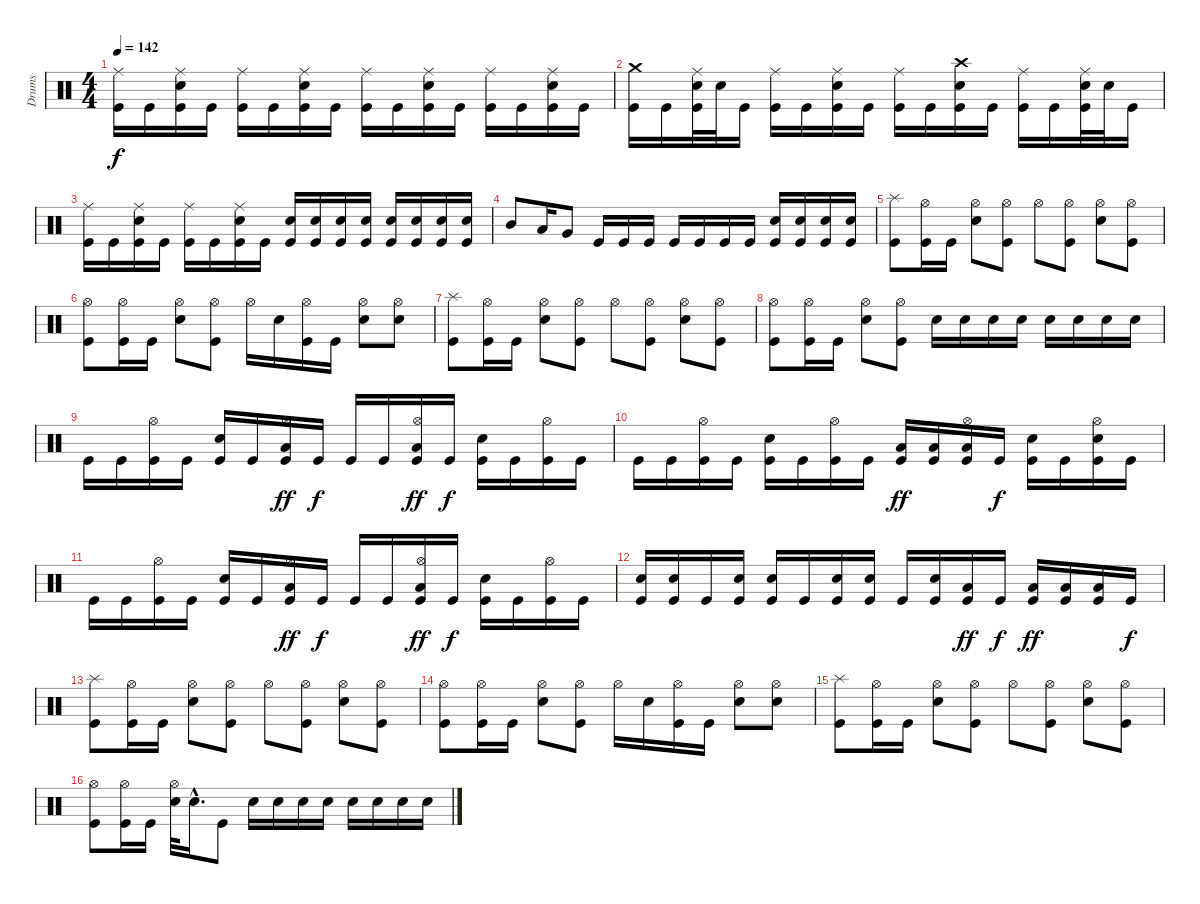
\track ("Drums" "Drums") {instrument percussion}
\staff {score}
\articulation defaults
\ts (4 4)
\tempo 142
\clef neutral
\ks c
("Ride (middle)" "Kick (hit)").16{dy f} "Kick (hit)".16 ("Ride (middle)" "Snare (hit) 2" "Kick (hit)").16 "Kick (hit)".16 ("Ride (middle)" "Kick (hit)").16 "Kick (hit)".16 ("Ride (middle)" "Snare (hit) 2" "Kick (hit)").16 "Kick (hit)".16 ("Ride (middle)" "Kick (hit)").16 "Kick (hit)".16 ("Ride (middle)" "Snare (hit) 2" "Kick (hit)").16 "Kick (hit)".16 ("Ride (middle)" "Kick (hit)").16 "Kick (hit)".16 ("Ride (middle)" "Snare (hit) 2" "Kick (hit)").16 "Kick (hit)".16 |
("Crash medium (hit)" "Kick (hit)").16 "Kick (hit)".16 ("Ride (middle)" "Snare (hit) 2" "Kick (hit)").32 "Snare (hit) 2".32 "Kick (hit)".16 ("Ride (middle)" "Kick (hit)").16 "Kick (hit)".16 ("Ride (middle)" "Snare (hit) 2" "Kick (hit)").16 "Kick (hit)".16 ("Ride (middle)" "Kick (hit)").16 "Kick (hit)".16 ("Crash high (hit)" "Snare (hit) 2" "Kick (hit)").16 "Kick (hit)".16 ("Ride (middle)" "Kick (hit)").16 "Kick (hit)".16 ("Ride (middle)" "Snare (hit) 2" "Kick (hit)").32 "Snare (hit) 2".32 "Kick (hit)".16 |
("Ride (middle)" "Kick (hit)").16 "Kick (hit)".16 ("Ride (middle)" "Snare (hit) 2" "Kick (hit)").16 "Kick (hit)".16 ("Ride (middle)" "Kick (hit)").16 "Kick (hit)".16 ("Ride (middle)" "Snare (hit) 2" "Kick (hit)").16 "Kick (hit)".16 ("Snare (hit) 2" "Kick (hit)").16 ("Snare (hit) 2" "Kick (hit)").16 ("Snare (hit) 2" "Kick (hit)").16 ("Snare (hit) 2" "Kick (hit)").16 ("Snare (hit) 2" "Kick (hit)").16 ("Snare (hit) 2" "Kick (hit)").16 ("Snare (hit) 2" "Kick (hit)").16 ("Snare (hit) 2" "Kick (hit)").16 |
"Mid Tom (hit)".8 "Low Tom (hit)".16 "Very Low Tom (hit)".8 "Kick (hit)".16 "Kick (hit)".16 "Kick (hit)".16 "Kick (hit)".16 "Kick (hit)".16 "Kick (hit)".16 "Kick (hit)".16 ("Snare (hit) 2" "Kick (hit)").16 ("Snare (hit) 2" "Kick (hit)").16 ("Snare (hit) 2" "Kick (hit)").16 ("Snare (hit) 2" "Kick (hit)").16 |
("Splash (hit)" "Kick (hit)").8 ("Hi-Hat (open)" "Kick (hit)").16 "Kick (hit)".16 ("Hi-Hat (open)" "Snare (hit) 2").8 ("Hi-Hat (open)" "Kick (hit)").8 "Hi-Hat (open)".8 ("Hi-Hat (open)" "Kick (hit)").8 ("Hi-Hat (open)" "Snare (hit) 2").8 ("Hi-Hat (open)" "Kick (hit)").8 |
("Hi-Hat (open)" "Kick (hit)").8 ("Hi-Hat (open)" "Kick (hit)").16 "Kick (hit)".16 ("Hi-Hat (open)" "Snare (hit) 2").8 ("Hi-Hat (open)" "Kick (hit)").8 "Hi-Hat (open)".16 "Snare (hit) 2".16 ("Hi-Hat (open)" "Kick (hit)").16 "Kick (hit)".16 ("Hi-Hat (open)" "Snare (hit) 2").8 ("Hi-Hat (open)" "Snare (hit) 2").8 |
("Splash (hit)" "Kick (hit)").8 ("Hi-Hat (open)" "Kick (hit)").16 "Kick (hit)".16 ("Hi-Hat (open)" "Snare (hit) 2").8 ("Hi-Hat (open)" "Kick (hit)").8 "Hi-Hat (open)".8 ("Hi-Hat (open)" "Kick (hit)").8 ("Hi-Hat (open)" "Snare (hit) 2").8 ("Hi-Hat (open)" "Kick (hit)").8 |
("Hi-Hat (open)" "Kick (hit)").8 ("Hi-Hat (open)" "Kick (hit)").16 "Kick (hit)".16 ("Hi-Hat (open)" "Snare (hit) 2").8 ("Hi-Hat (open)" "Kick (hit)").8 "Snare (hit) 2".16 "Snare (hit) 2".16 "Snare (hit) 2".16 "Snare (hit) 2".16 "Snare (hit) 2".16 "Snare (hit) 2".16 "Snare (hit) 2".16 "Snare (hit) 2".16 |
"Kick (hit)".16 "Kick (hit)".16 ("Hi-Hat (open)" "Kick (hit)").16 "Kick (hit)".16 ("Snare (hit) 2" "Kick (hit)").16 "Kick (hit)".16 ("Hi-Hat (open)" "Low Floor Tom (hit)" "Kick (hit)").16{dy ff} "Kick (hit)".16{dy f} "Kick (hit)".16 "Kick (hit)".16 ("Hi-Hat (open)" "Low Floor Tom (hit)" "Kick (hit)").16{dy ff} "Kick (hit)".16{dy f} ("Snare (hit) 2" "Kick (hit)").16 "Kick (hit)".16 ("Hi-Hat (open)" "Kick (hit)").16 "Kick (hit)".16 |
"Kick (hit)".16 "Kick (hit)".16 ("Hi-Hat (open)" "Kick (hit)").16 "Kick (hit)".16 ("Snare (hit) 2" "Kick (hit)").16 "Kick (hit)".16 ("Hi-Hat (open)" "Kick (hit)").16 "Kick (hit)".16 ("Low Floor Tom (hit)" "Kick (hit)").16{dy ff} ("Low Floor Tom (hit)" "Kick (hit)").16 ("Hi-Hat (open)" "Low Floor Tom (hit)" "Kick (hit)").16 "Kick (hit)".16{dy f} ("Snare (hit) 2" "Kick (hit)").16 "Kick (hit)".16 ("Hi-Hat (open)" "Snare (hit) 2" "Kick (hit)").16 "Kick (hit)".16 |
"Kick (hit)".16 "Kick (hit)".16 ("Hi-Hat (open)" "Kick (hit)").16 "Kick (hit)".16 ("Snare (hit) 2" "Kick (hit)").16 "Kick (hit)".16 ("Hi-Hat (open)" "Low Floor Tom (hit)" "Kick (hit)").16{dy ff} "Kick (hit)".16{dy f} "Kick (hit)".16 "Kick (hit)".16 ("Hi-Hat (open)" "Low Floor Tom (hit)" "Kick (hit)").16{dy ff} "Kick (hit)".16{dy f} ("Snare (hit) 2" "Kick (hit)").16 "Kick (hit)".16 ("Hi-Hat (open)" "Kick (hit)").16 "Kick (hit)".16 |
("Snare (hit) 2" "Kick (hit)").16 ("Snare (hit) 2" "Kick (hit)").16 "Kick (hit)".16 ("Snare (hit) 2" "Kick (hit)").16 ("Snare (hit) 2" "Kick (hit)").16 "Kick (hit)".16 ("Snare (hit) 2" "Kick (hit)").16 ("Snare (hit) 2" "Kick (hit)").16 "Kick (hit)".16 ("Snare (hit) 2" "Kick (hit)").16 ("Low Floor Tom (hit)" "Kick (hit)").16{dy ff} "Kick (hit)".16{dy f} ("Low Floor Tom (hit)" "Kick (hit)").16{dy ff} ("Low Floor Tom (hit)" "Kick (hit)").16 ("Low Floor Tom (hit)" "Kick (hit)").16 "Kick (hit)".16{dy f} |
("Splash (hit)" "Kick (hit)").8 ("Hi-Hat (open)" "Kick (hit)").16 "Kick (hit)".16 ("Hi-Hat (open)" "Snare (hit) 2").8 ("Hi-Hat (open)" "Kick (hit)").8 "Hi-Hat (open)".8 ("Hi-Hat (open)" "Kick (hit)").8 ("Hi-Hat (open)" "Snare (hit) 2").8 ("Hi-Hat (open)" "Kick (hit)").8 |
("Hi-Hat (open)" "Kick (hit)").8 ("Hi-Hat (open)" "Kick (hit)").16 "Kick (hit)".16 ("Hi-Hat (open)" "Snare (hit) 2").8 ("Hi-Hat (open)" "Kick (hit)").8 "Hi-Hat (open)".16 "Snare (hit) 2".16 ("Hi-Hat (open)" "Kick (hit)").16 "Kick (hit)".16 ("Hi-Hat (open)" "Snare (hit) 2").8 ("Hi-Hat (open)" "Snare (hit) 2").8 |
("Splash (hit)" "Kick (hit)").8 ("Hi-Hat (open)" "Kick (hit)").16 "Kick (hit)".16 ("Hi-Hat (open)" "Snare (hit) 2").8 ("Hi-Hat (open)" "Kick (hit)").8 "Hi-Hat (open)".8 ("Hi-Hat (open)" "Kick (hit)").8 ("Hi-Hat (open)" "Snare (hit) 2").8 ("Hi-Hat (open)" "Kick (hit)").8 |
("Hi-Hat (open)" "Kick (hit)").8 ("Hi-Hat (open)" "Kick (hit)").16 "Kick (hit)".16 ("Hi-Hat (open)" "Snare (hit) 2").32 "Snare (hit) 2"{hac}.16{d} "Kick (hit)".8 "Snare (hit) 2".16 "Snare (hit) 2".16 "Snare (hit) 2".16 "Snare (hit) 2".16 "Snare (hit) 2".16 "Snare (hit) 2".16 "Snare (hit) 2".16 "Snare (hit) 2".16
